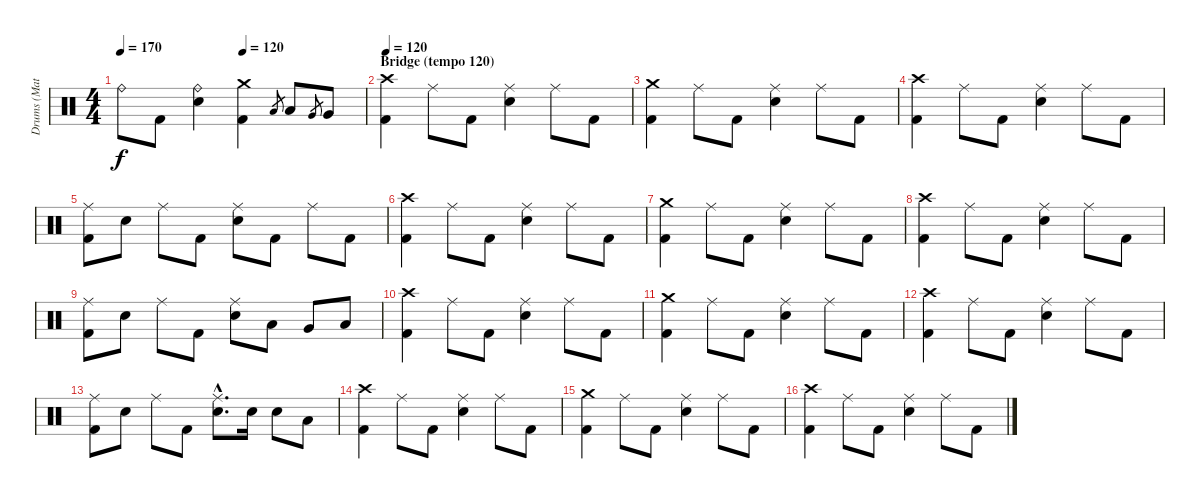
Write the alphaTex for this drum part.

\track ("Drums (Matt)" "Drums (Mat") {instrument percussion}
\staff {score}
\articulation defaults
\ts (4 4)
\tempo 170
\tempo (120 0.5)
\clef neutral
\ks c "Ride (bell)".8{dy f} "Kick (hit) 2".8
("Ride (bell)" "Snare (hit) 2").4 ("Crash medium (hit)" "Kick (hit) 2").4 "Low Tom (hit)".8{gr} "Low Tom (hit)".8 "Very Low Tom (hit)".8{gr} "Very Low Tom (hit)".8 |
\section ("" "Bridge (tempo 120)")
\tempo 120
("Crash high (hit)" "Kick (hit) 2").4 "Ride (middle)".8 "Kick (hit) 2".8 ("Ride (middle)" "Snare (hit) 2").4 "Ride (middle)".8 "Kick (hit) 2".8 |
("Crash medium (hit)" "Kick (hit) 2").4 "Ride (middle)".8 "Kick (hit) 2".8 ("Ride (middle)" "Snare (hit) 2").4 "Ride (middle)".8 "Kick (hit) 2".8 |
("Crash high (hit)" "Kick (hit) 2").4 "Ride (middle)".8 "Kick (hit) 2".8 ("Ride (middle)" "Snare (hit) 2").4 "Ride (middle)".8 "Kick (hit) 2".8 |
("Ride (middle)" "Kick (hit) 2").8 "Snare (hit) 2".8 "Ride (middle)".8 "Kick (hit) 2".8 ("Ride (middle)" "Snare (hit) 2").8 "Kick (hit) 2".8 "Ride (middle)".8 "Kick (hit) 2".8 |
("Crash high (hit)" "Kick (hit) 2").4 "Ride (middle)".8 "Kick (hit) 2".8 ("Ride (middle)" "Snare (hit) 2").4 "Ride (middle)".8 "Kick (hit) 2".8 |
("Crash medium (hit)" "Kick (hit) 2").4 "Ride (middle)".8 "Kick (hit) 2".8 ("Ride (middle)" "Snare (hit) 2").4 "Ride (middle)".8 "Kick (hit) 2".8 |
("Crash high (hit)" "Kick (hit) 2").4 "Ride (middle)".8 "Kick (hit) 2".8 ("Ride (middle)" "Snare (hit) 2").4 "Ride (middle)".8 "Kick (hit) 2".8 |
("Ride (middle)" "Kick (hit) 2").8 "Snare (hit) 2".8 "Ride (middle)".8 "Kick (hit) 2".8 ("Ride (middle)" "Snare (hit) 2").8 "Low Tom (hit)".8 "Very Low Tom (hit)".8 "Low Floor Tom (hit)".8 |
("Crash high (hit)" "Kick (hit) 2").4 "Ride (middle)".8 "Kick (hit) 2".8 ("Ride (middle)" "Snare (hit) 2").4 "Ride (middle)".8 "Kick (hit) 2".8 |
("Crash medium (hit)" "Kick (hit) 2").4 "Ride (middle)".8 "Kick (hit) 2".8 ("Ride (middle)" "Snare (hit) 2").4 "Ride (middle)".8 "Kick (hit) 2".8 |
("Crash high (hit)" "Kick (hit) 2").4 "Ride (middle)".8 "Kick (hit) 2".8 ("Ride (middle)" "Snare (hit) 2").4 "Ride (middle)".8 "Kick (hit) 2".8 |
("Ride (middle)" "Kick (hit) 2").8 "Snare (hit) 2".8 "Ride (middle)".8 "Kick (hit) 2".8 ("Ride (middle)"{hac} "Snare (hit) 2"{hac}).8{d} "Snare (hit) 2".16 "Snare (hit) 2".8 "Low Tom (hit)".8 |
("Crash high (hit)" "Kick (hit) 2").4 "Ride (middle)".8 "Kick (hit) 2".8 ("Ride (middle)" "Snare (hit) 2").4 "Ride (middle)".8 "Kick (hit) 2".8 |
("Crash medium (hit)" "Kick (hit) 2").4 "Ride (middle)".8 "Kick (hit) 2".8 ("Ride (middle)" "Snare (hit) 2").4 "Ride (middle)".8 "Kick (hit) 2".8 |
("Crash high (hit)" "Kick (hit) 2").4 "Ride (middle)".8 "Kick (hit) 2".8 ("Ride (middle)" "Snare (hit) 2").4 "Ride (middle)".8 "Kick (hit) 2".8
